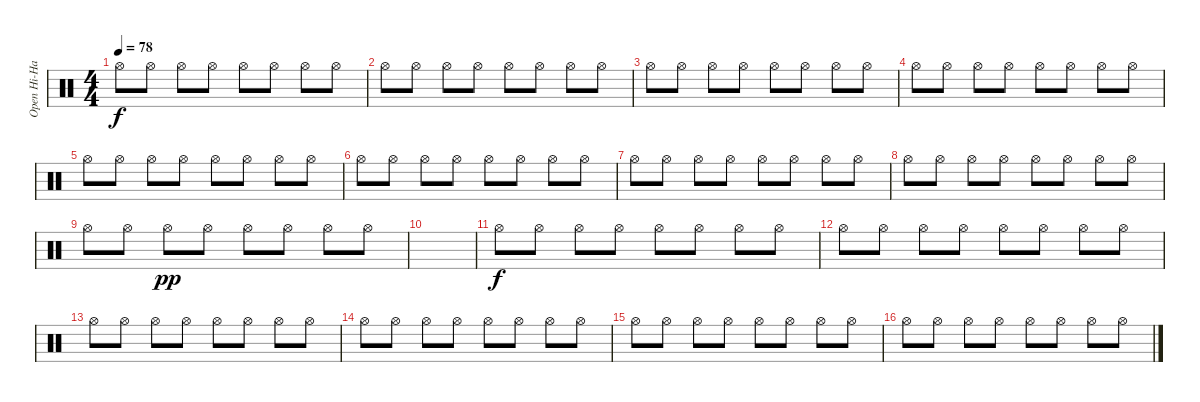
\track ("Open Hi-Hat" "Open Hi-Ha") {instrument percussion}
\staff {score}
\articulation defaults
\ts (4 4)
\tempo 78
\clef neutral
\ks c "Hi-Hat (open)".8{dy f} "Hi-Hat (open)".8 "Hi-Hat (open)".8 "Hi-Hat (open)".8 "Hi-Hat (open)".8 "Hi-Hat (open)".8 "Hi-Hat (open)".8 "Hi-Hat (open)".8
|
"Hi-Hat (open)".8 "Hi-Hat (open)".8 "Hi-Hat (open)".8 "Hi-Hat (open)".8 "Hi-Hat (open)".8 "Hi-Hat (open)".8 "Hi-Hat (open)".8 "Hi-Hat (open)".8 |
"Hi-Hat (open)".8 "Hi-Hat (open)".8 "Hi-Hat (open)".8 "Hi-Hat (open)".8 "Hi-Hat (open)".8 "Hi-Hat (open)".8 "Hi-Hat (open)".8 "Hi-Hat (open)".8 |
"Hi-Hat (open)".8 "Hi-Hat (open)".8 "Hi-Hat (open)".8 "Hi-Hat (open)".8 "Hi-Hat (open)".8 "Hi-Hat (open)".8 "Hi-Hat (open)".8 "Hi-Hat (open)".8 |
"Hi-Hat (open)".8 "Hi-Hat (open)".8 "Hi-Hat (open)".8 "Hi-Hat (open)".8 "Hi-Hat (open)".8 "Hi-Hat (open)".8 "Hi-Hat (open)".8 "Hi-Hat (open)".8 |
"Hi-Hat (open)".8 "Hi-Hat (open)".8 "Hi-Hat (open)".8 "Hi-Hat (open)".8 "Hi-Hat (open)".8 "Hi-Hat (open)".8 "Hi-Hat (open)".8 "Hi-Hat (open)".8 |
"Hi-Hat (open)".8 "Hi-Hat (open)".8 "Hi-Hat (open)".8 "Hi-Hat (open)".8 "Hi-Hat (open)".8 "Hi-Hat (open)".8 "Hi-Hat (open)".8 "Hi-Hat (open)".8 |
"Hi-Hat (open)".8 "Hi-Hat (open)".8 "Hi-Hat (open)".8 "Hi-Hat (open)".8 "Hi-Hat (open)".8 "Hi-Hat (open)".8 "Hi-Hat (open)".8 "Hi-Hat (open)".8 |
"Hi-Hat (open)".8 "Hi-Hat (open)".8 "Hi-Hat (open)".8{dy pp} "Hi-Hat (open)".8 "Hi-Hat (open)".8 "Hi-Hat (open)".8 "Hi-Hat (open)".8 "Hi-Hat (open)".8 |
|
"Hi-Hat (open)".8{dy f} "Hi-Hat (open)".8 "Hi-Hat (open)".8 "Hi-Hat (open)".8 "Hi-Hat (open)".8 "Hi-Hat (open)".8 "Hi-Hat (open)".8 "Hi-Hat (open)".8 |
"Hi-Hat (open)".8 "Hi-Hat (open)".8 "Hi-Hat (open)".8 "Hi-Hat (open)".8 "Hi-Hat (open)".8 "Hi-Hat (open)".8 "Hi-Hat (open)".8 "Hi-Hat (open)".8 |
"Hi-Hat (open)".8 "Hi-Hat (open)".8 "Hi-Hat (open)".8 "Hi-Hat (open)".8 "Hi-Hat (open)".8 "Hi-Hat (open)".8 "Hi-Hat (open)".8 "Hi-Hat (open)".8 |
"Hi-Hat (open)".8 "Hi-Hat (open)".8 "Hi-Hat (open)".8 "Hi-Hat (open)".8 "Hi-Hat (open)".8 "Hi-Hat (open)".8 "Hi-Hat (open)".8 "Hi-Hat (open)".8 |
"Hi-Hat (open)".8 "Hi-Hat (open)".8 "Hi-Hat (open)".8 "Hi-Hat (open)".8 "Hi-Hat (open)".8 "Hi-Hat (open)".8 "Hi-Hat (open)".8 "Hi-Hat (open)".8 |
"Hi-Hat (open)".8 "Hi-Hat (open)".8 "Hi-Hat (open)".8 "Hi-Hat (open)".8 "Hi-Hat (open)".8 "Hi-Hat (open)".8 "Hi-Hat (open)".8 "Hi-Hat (open)".8
